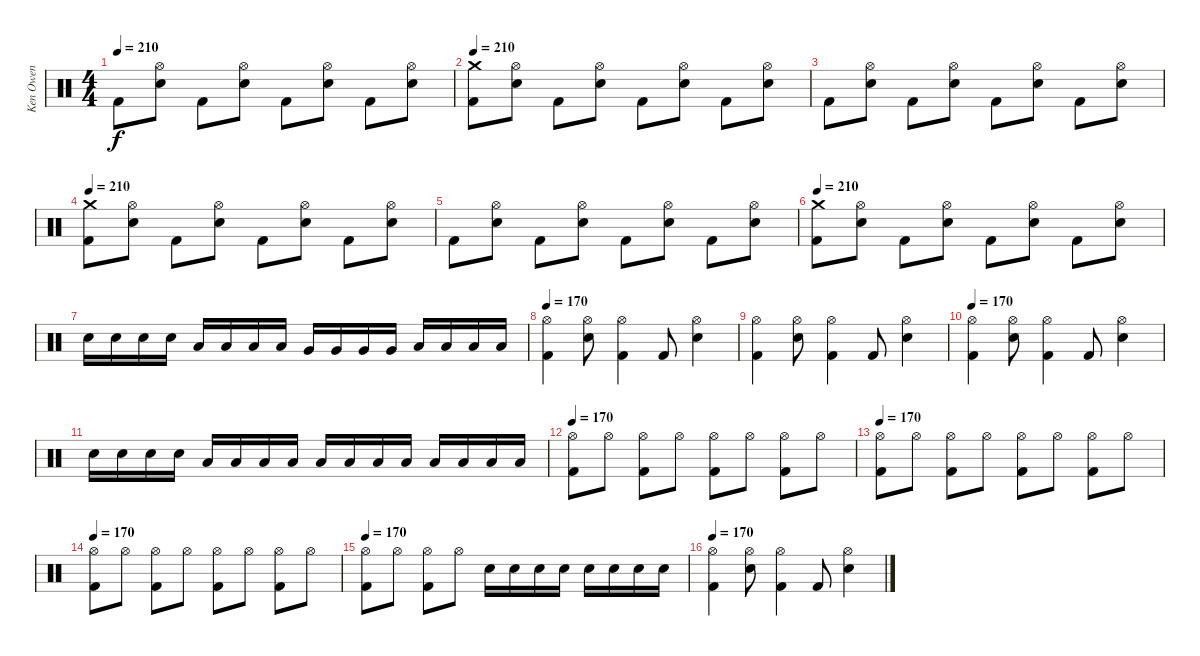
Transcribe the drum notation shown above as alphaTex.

\track ("Ken Owen" "Ken Owen") {instrument percussion}
\staff {score}
\articulation defaults
\ts (4 4)
\tempo 210
\clef neutral
\ks c "Kick (hit) 2".8{dy f}
("Hi-Hat (open)" "Electric Snare (hit)").8 "Kick (hit) 2".8 ("Hi-Hat (open)" "Electric Snare (hit)").8 "Kick (hit) 2".8 ("Hi-Hat (open)" "Electric Snare (hit)").8 "Kick (hit) 2".8 ("Hi-Hat (open)" "Electric Snare (hit)").8 |
\tempo 210
("Crash medium (hit)" "Kick (hit) 2").8 ("Hi-Hat (open)" "Electric Snare (hit)").8 "Kick (hit) 2".8 ("Hi-Hat (open)" "Electric Snare (hit)").8 "Kick (hit) 2".8 ("Hi-Hat (open)" "Electric Snare (hit)").8 "Kick (hit) 2".8 ("Hi-Hat (open)" "Electric Snare (hit)").8 |
"Kick (hit) 2".8 ("Hi-Hat (open)" "Electric Snare (hit)").8 "Kick (hit) 2".8 ("Hi-Hat (open)" "Electric Snare (hit)").8 "Kick (hit) 2".8 ("Hi-Hat (open)" "Electric Snare (hit)").8 "Kick (hit) 2".8 ("Hi-Hat (open)" "Electric Snare (hit)").8 |
\tempo 210
("Crash medium (hit)" "Kick (hit) 2").8 ("Hi-Hat (open)" "Electric Snare (hit)").8 "Kick (hit) 2".8 ("Hi-Hat (open)" "Electric Snare (hit)").8 "Kick (hit) 2".8 ("Hi-Hat (open)" "Electric Snare (hit)").8 "Kick (hit) 2".8 ("Hi-Hat (open)" "Electric Snare (hit)").8 |
"Kick (hit) 2".8 ("Hi-Hat (open)" "Electric Snare (hit)").8 "Kick (hit) 2".8 ("Hi-Hat (open)" "Electric Snare (hit)").8 "Kick (hit) 2".8 ("Hi-Hat (open)" "Electric Snare (hit)").8 "Kick (hit) 2".8 ("Hi-Hat (open)" "Electric Snare (hit)").8 |
\tempo 210
("Crash medium (hit)" "Kick (hit) 2").8 ("Hi-Hat (open)" "Electric Snare (hit)").8 "Kick (hit) 2".8 ("Hi-Hat (open)" "Electric Snare (hit)").8 "Kick (hit) 2".8 ("Hi-Hat (open)" "Electric Snare (hit)").8 "Kick (hit) 2".8 ("Hi-Hat (open)" "Electric Snare (hit)").8 |
"Electric Snare (hit)".16 "Electric Snare (hit)".16 "Electric Snare (hit)".16 "Electric Snare (hit)".16 "Low Tom (hit)".16 "Low Tom (hit)".16 "Low Tom (hit)".16 "Low Tom (hit)".16 "Very Low Tom (hit)".16 "Very Low Tom (hit)".16 "Very Low Tom (hit)".16 "Very Low Tom (hit)".16 "Low Floor Tom (hit)".16 "Low Floor Tom (hit)".16 "Low Floor Tom (hit)".16 "Low Floor Tom (hit)".16 |
\tempo 160
\tempo 170
("Hi-Hat (open)" "Kick (hit) 2").4 ("Hi-Hat (open)" "Electric Snare (hit)").8 ("Hi-Hat (open)" "Kick (hit) 2").4 "Kick (hit) 2".8 ("Hi-Hat (open)" "Electric Snare (hit)").4 |
("Hi-Hat (open)" "Kick (hit) 2").4 ("Hi-Hat (open)" "Electric Snare (hit)").8 ("Hi-Hat (open)" "Kick (hit) 2").4 "Kick (hit) 2".8 ("Hi-Hat (open)" "Electric Snare (hit)").4 |
\tempo 160
\tempo 170
("Hi-Hat (open)" "Kick (hit) 2").4 ("Hi-Hat (open)" "Electric Snare (hit)").8 ("Hi-Hat (open)" "Kick (hit) 2").4 "Kick (hit) 2".8 ("Hi-Hat (open)" "Electric Snare (hit)").4 |
"Electric Snare (hit)".16 "Electric Snare (hit)".16 "Electric Snare (hit)".16 "Electric Snare (hit)".16 "Low Floor Tom (hit)".16 "Low Floor Tom (hit)".16 "Low Floor Tom (hit)".16 "Low Floor Tom (hit)".16 "Low Floor Tom (hit)".16 "Low Floor Tom (hit)".16 "Low Floor Tom (hit)".16 "Low Floor Tom (hit)".16 "Low Floor Tom (hit)".16 "Low Floor Tom (hit)".16 "Low Floor Tom (hit)".16 "Low Floor Tom (hit)".16 |
\tempo 170
("Hi-Hat (open)" "Kick (hit) 2").8 "Hi-Hat (open)".8 ("Hi-Hat (open)" "Kick (hit) 2").8 "Hi-Hat (open)".8 ("Hi-Hat (open)" "Kick (hit) 2").8 "Hi-Hat (open)".8 ("Hi-Hat (open)" "Kick (hit) 2").8 "Hi-Hat (open)".8 |
\tempo 170
("Hi-Hat (open)" "Kick (hit) 2").8 "Hi-Hat (open)".8 ("Hi-Hat (open)" "Kick (hit) 2").8 "Hi-Hat (open)".8 ("Hi-Hat (open)" "Kick (hit) 2").8 "Hi-Hat (open)".8 ("Hi-Hat (open)" "Kick (hit) 2").8 "Hi-Hat (open)".8 |
\tempo 170
("Hi-Hat (open)" "Kick (hit) 2").8 "Hi-Hat (open)".8 ("Hi-Hat (open)" "Kick (hit) 2").8 "Hi-Hat (open)".8 ("Hi-Hat (open)" "Kick (hit) 2").8 "Hi-Hat (open)".8 ("Hi-Hat (open)" "Kick (hit) 2").8 "Hi-Hat (open)".8 |
\tempo 170
("Hi-Hat (open)" "Kick (hit) 2").8 "Hi-Hat (open)".8 ("Hi-Hat (open)" "Kick (hit) 2").8 "Hi-Hat (open)".8 "Electric Snare (hit)".16 "Electric Snare (hit)".16 "Electric Snare (hit)".16 "Electric Snare (hit)".16 "Electric Snare (hit)".16 "Electric Snare (hit)".16 "Electric Snare (hit)".16 "Electric Snare (hit)".16 |
\tempo 160
\tempo 170
("Hi-Hat (open)" "Kick (hit) 2").4 ("Hi-Hat (open)" "Electric Snare (hit)").8 ("Hi-Hat (open)" "Kick (hit) 2").4 "Kick (hit) 2".8 ("Hi-Hat (open)" "Electric Snare (hit)").4
